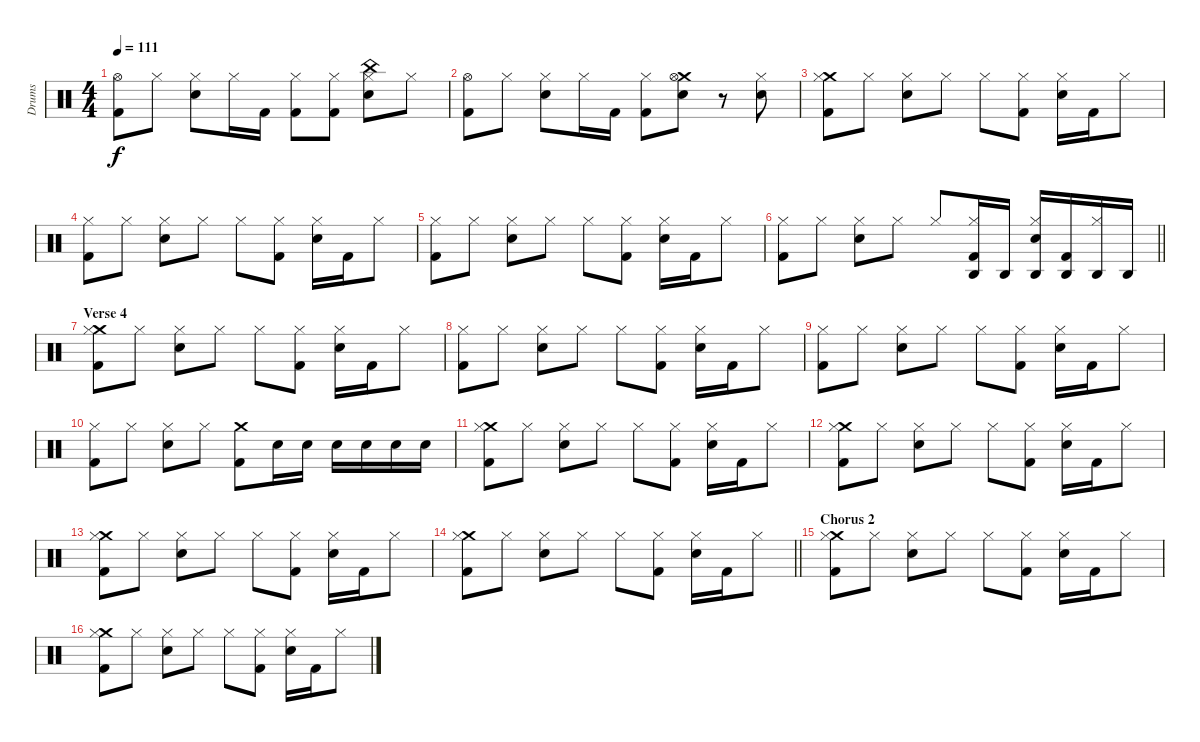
\track ("Drums" "Drums") {instrument percussion}
\staff {score}
\articulation defaults
\ts (4 4)
\tempo 111
\clef neutral
\ks c
("Hi-Hat (open)" "Kick (hit) 2").8{dy f} "Hi-Hat (closed)".8 ("Hi-Hat (closed)" "Snare (hit) 2").8 "Hi-Hat (closed)".16 "Kick (hit) 2".16 ("Hi-Hat (closed)" "Kick (hit) 2").8 ("Hi-Hat (closed)" "Kick (hit) 2").8 ("China (hit)" "Hi-Hat (closed)" "Snare (hit) 2").8 "Hi-Hat (closed)".8 |
("Hi-Hat (open)" "Kick (hit) 2").8 "Hi-Hat (closed)".8 ("Hi-Hat (closed)" "Snare (hit) 2").8 "Hi-Hat (closed)".16 "Kick (hit) 2".16 ("Hi-Hat (closed)" "Kick (hit) 2").8 ("Crash medium (hit)" "Hi-Hat (open)" "Snare (hit) 2").8 r.8 ("Snare (hit) 2" "Hi-Hat (closed)").8 |
("Crash medium (hit)" "Hi-Hat (closed)" "Kick (hit) 2").8 "Hi-Hat (closed)".8 ("Hi-Hat (closed)" "Snare (hit) 2").8 "Hi-Hat (closed)".8 "Hi-Hat (closed)".8 ("Hi-Hat (closed)" "Kick (hit) 2").8 ("Hi-Hat (closed)" "Snare (hit) 2").16 "Kick (hit) 2".16 "Hi-Hat (closed)".8 |
("Hi-Hat (closed)" "Kick (hit) 2").8 "Hi-Hat (closed)".8 ("Hi-Hat (closed)" "Snare (hit) 2").8 "Hi-Hat (closed)".8 "Hi-Hat (closed)".8 ("Hi-Hat (closed)" "Kick (hit) 2").8 ("Hi-Hat (closed)" "Snare (hit) 2").16 "Kick (hit) 2".16 "Hi-Hat (closed)".8 |
("Hi-Hat (closed)" "Kick (hit) 2").8 "Hi-Hat (closed)".8 ("Hi-Hat (closed)" "Snare (hit) 2").8 "Hi-Hat (closed)".8 "Hi-Hat (closed)".8 ("Hi-Hat (closed)" "Kick (hit) 2").8 ("Hi-Hat (closed)" "Snare (hit) 2").16 "Kick (hit) 2".16 "Hi-Hat (closed)".8 |
\barLineRight lightlight
("Hi-Hat (closed)" "Kick (hit) 2").8 "Hi-Hat (closed)".8 ("Hi-Hat (closed)" "Snare (hit) 2").8 "Hi-Hat (closed)".8 "Hi-Hat (closed)".8 ("Agogo high (hit)" "Hi-Hat (closed)" "Kick (hit) 2").16 "Agogo high (hit)".16 ("Agogo high (hit)" "Hi-Hat (closed)" "Snare (hit) 2").16 ("Agogo high (hit)" "Kick (hit) 2").16 ("Agogo high (hit)" "Hi-Hat (closed)").16 "Agogo high (hit)".16 |
\section ("" "Verse 4")
("Crash medium (hit)" "Hi-Hat (closed)" "Kick (hit) 2").8 "Hi-Hat (closed)".8 ("Hi-Hat (closed)" "Snare (hit) 2").8 "Hi-Hat (closed)".8 "Hi-Hat (closed)".8 ("Hi-Hat (closed)" "Kick (hit) 2").8 ("Hi-Hat (closed)" "Snare (hit) 2").16 "Kick (hit) 2".16 "Hi-Hat (closed)".8 |
("Hi-Hat (closed)" "Kick (hit) 2").8 "Hi-Hat (closed)".8 ("Hi-Hat (closed)" "Snare (hit) 2").8 "Hi-Hat (closed)".8 "Hi-Hat (closed)".8 ("Hi-Hat (closed)" "Kick (hit) 2").8 ("Hi-Hat (closed)" "Snare (hit) 2").16 "Kick (hit) 2".16 "Hi-Hat (closed)".8 |
("Hi-Hat (closed)" "Kick (hit) 2").8 "Hi-Hat (closed)".8 ("Hi-Hat (closed)" "Snare (hit) 2").8 "Hi-Hat (closed)".8 "Hi-Hat (closed)".8 ("Hi-Hat (closed)" "Kick (hit) 2").8 ("Hi-Hat (closed)" "Snare (hit) 2").16 "Kick (hit) 2".16 "Hi-Hat (closed)".8 |
("Hi-Hat (closed)" "Kick (hit) 2").8 "Hi-Hat (closed)".8 ("Hi-Hat (closed)" "Snare (hit) 2").8 "Hi-Hat (closed)".8 ("Crash medium (hit)" "Kick (hit) 2").8 "Snare (hit) 2".16 "Snare (hit) 2".16 "Snare (hit) 2".16 "Snare (hit) 2".16 "Snare (hit) 2".16 "Snare (hit) 2".16 |
("Crash medium (hit)" "Hi-Hat (closed)" "Kick (hit) 2").8 "Hi-Hat (closed)".8 ("Hi-Hat (closed)" "Snare (hit) 2").8 "Hi-Hat (closed)".8 "Hi-Hat (closed)".8 ("Hi-Hat (closed)" "Kick (hit) 2").8 ("Hi-Hat (closed)" "Snare (hit) 2").16 "Kick (hit) 2".16 "Hi-Hat (closed)".8 |
("Crash medium (hit)" "Hi-Hat (closed)" "Kick (hit) 2").8 "Hi-Hat (closed)".8 ("Hi-Hat (closed)" "Snare (hit) 2").8 "Hi-Hat (closed)".8 "Hi-Hat (closed)".8 ("Hi-Hat (closed)" "Kick (hit) 2").8 ("Hi-Hat (closed)" "Snare (hit) 2").16 "Kick (hit) 2".16 "Hi-Hat (closed)".8 |
("Crash medium (hit)" "Hi-Hat (closed)" "Kick (hit) 2").8 "Hi-Hat (closed)".8 ("Hi-Hat (closed)" "Snare (hit) 2").8 "Hi-Hat (closed)".8 "Hi-Hat (closed)".8 ("Hi-Hat (closed)" "Kick (hit) 2").8 ("Hi-Hat (closed)" "Snare (hit) 2").16 "Kick (hit) 2".16 "Hi-Hat (closed)".8 |
\barLineRight lightlight
("Crash medium (hit)" "Hi-Hat (closed)" "Kick (hit) 2").8 "Hi-Hat (closed)".8 ("Hi-Hat (closed)" "Snare (hit) 2").8 "Hi-Hat (closed)".8 "Hi-Hat (closed)".8 ("Hi-Hat (closed)" "Kick (hit) 2").8 ("Hi-Hat (closed)" "Snare (hit) 2").16 "Kick (hit) 2".16 "Hi-Hat (closed)".8 |
\section ("" "Chorus 2")
("Crash medium (hit)" "Hi-Hat (closed)" "Kick (hit) 2").8 "Hi-Hat (closed)".8 ("Hi-Hat (closed)" "Snare (hit) 2").8 "Hi-Hat (closed)".8 "Hi-Hat (closed)".8 ("Hi-Hat (closed)" "Kick (hit) 2").8 ("Hi-Hat (closed)" "Snare (hit) 2").16 "Kick (hit) 2".16 "Hi-Hat (closed)".8 |
("Crash medium (hit)" "Hi-Hat (closed)" "Kick (hit) 2").8 "Hi-Hat (closed)".8 ("Hi-Hat (closed)" "Snare (hit) 2").8 "Hi-Hat (closed)".8 "Hi-Hat (closed)".8 ("Hi-Hat (closed)" "Kick (hit) 2").8 ("Hi-Hat (closed)" "Snare (hit) 2").16 "Kick (hit) 2".16 "Hi-Hat (closed)".8
